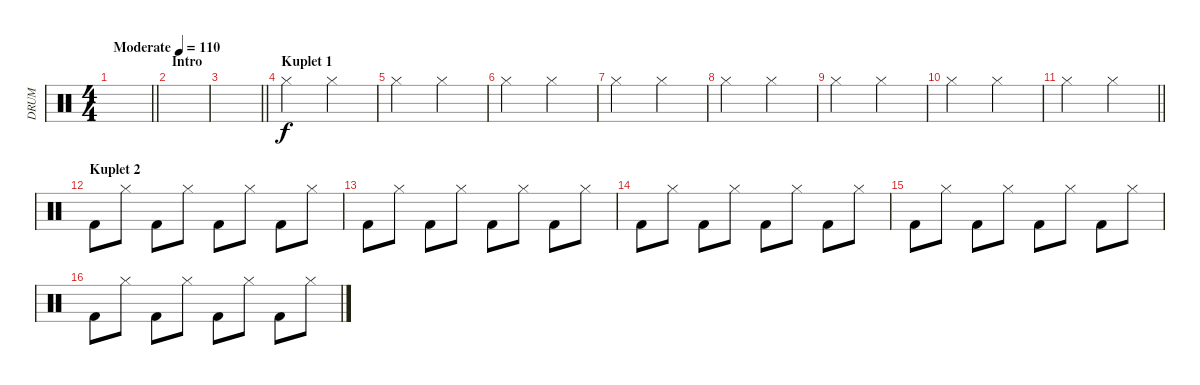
\track ("DRUM" "DRUM") {instrument percussion}
\staff {score}
\articulation defaults
\ts (4 4)
\tempo (110 "Moderate")
\clef neutral
\barLineRight lightlight
\ks c
|
\section ("" "Intro")
|
\barLineRight lightlight
|
\section ("" "Kuplet 1")
"Hi-Hat (closed)".2 "Hi-Hat (closed)".2 |
"Hi-Hat (closed)".2 "Hi-Hat (closed)".2 |
"Hi-Hat (closed)".2 "Hi-Hat (closed)".2 |
"Hi-Hat (closed)".2 "Hi-Hat (closed)".2 |
"Hi-Hat (closed)".2 "Hi-Hat (closed)".2 |
"Hi-Hat (closed)".2 "Hi-Hat (closed)".2 |
"Hi-Hat (closed)".2 "Hi-Hat (closed)".2 |
\barLineRight lightlight "Hi-Hat (closed)".2 "Hi-Hat (closed)".2
|
\section ("" "Kuplet 2")
"Kick (hit) 2".8 "Hi-Hat (closed)".8 "Kick (hit) 2".8 "Hi-Hat (closed)".8 "Kick (hit) 2".8 "Hi-Hat (closed)".8 "Kick (hit) 2".8 "Hi-Hat (closed)".8 |
"Kick (hit) 2".8 "Hi-Hat (closed)".8 "Kick (hit) 2".8 "Hi-Hat (closed)".8 "Kick (hit) 2".8 "Hi-Hat (closed)".8 "Kick (hit) 2".8 "Hi-Hat (closed)".8 |
"Kick (hit) 2".8 "Hi-Hat (closed)".8 "Kick (hit) 2".8 "Hi-Hat (closed)".8 "Kick (hit) 2".8 "Hi-Hat (closed)".8 "Kick (hit) 2".8 "Hi-Hat (closed)".8 |
"Kick (hit) 2".8 "Hi-Hat (closed)".8 "Kick (hit) 2".8 "Hi-Hat (closed)".8 "Kick (hit) 2".8 "Hi-Hat (closed)".8 "Kick (hit) 2".8 "Hi-Hat (closed)".8 |
"Kick (hit) 2".8 "Hi-Hat (closed)".8 "Kick (hit) 2".8 "Hi-Hat (closed)".8 "Kick (hit) 2".8 "Hi-Hat (closed)".8 "Kick (hit) 2".8 "Hi-Hat (closed)".8
